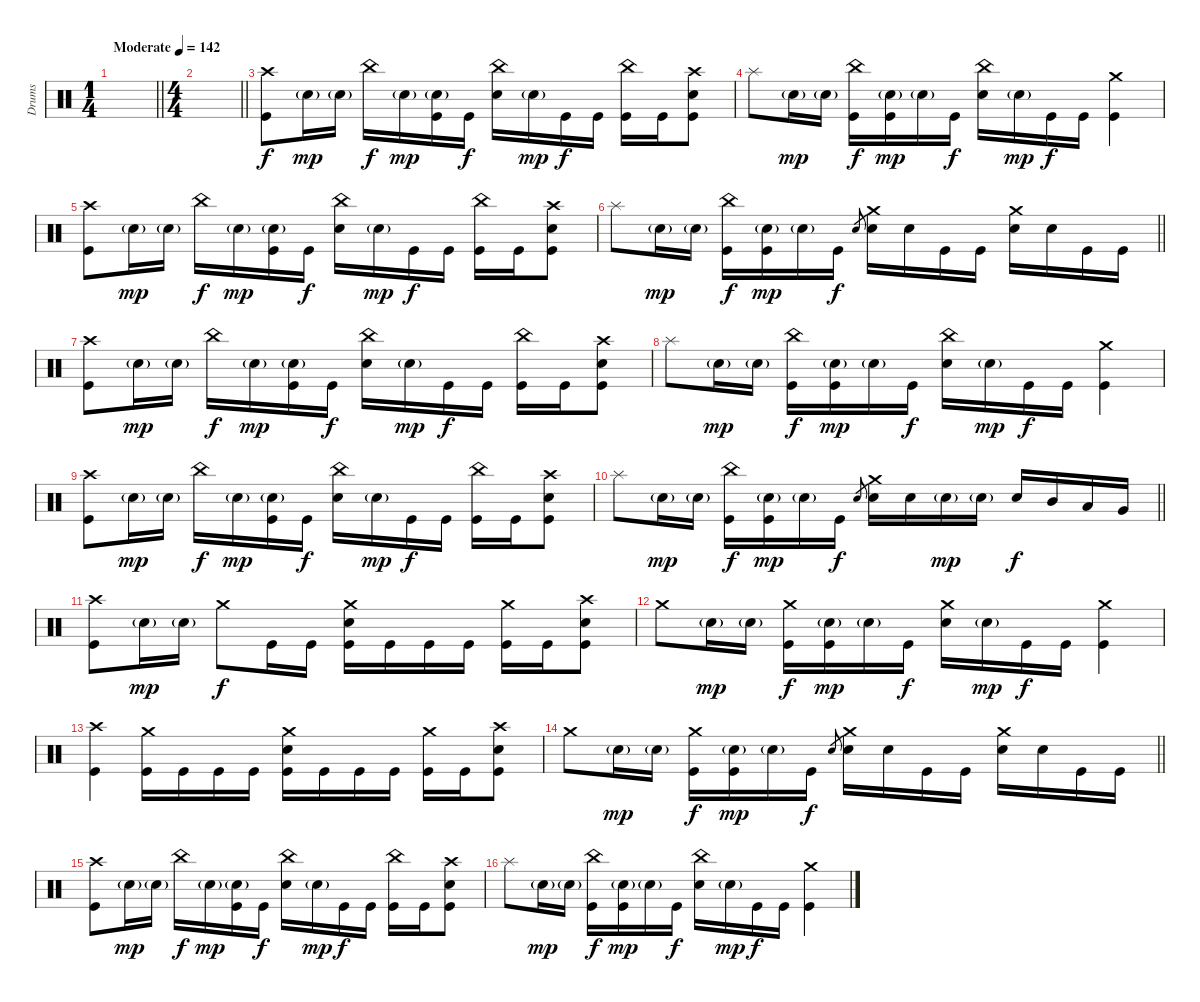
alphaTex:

\track ("Drums" "Drums") {instrument percussion}
\staff
\articulation defaults
\ts (1 4)
\tempo (142 "Moderate")
\clef neutral
\barLineRight lightlight
\ks c
|
\ts (4 4)
\barLineRight lightlight
|
("Crash high (hit)" "Kick (hit)").8 "Electric Snare (hit)"{g}.16{dy mp} "Electric Snare (hit)"{g}.16 "China (hit)".16{dy f} "Electric Snare (hit)"{g}.16{dy mp} ("Electric Snare (hit)"{g} "Kick (hit)").16 "Kick (hit)".16{dy f} ("China (hit)" "Electric Snare (hit)").16 "Electric Snare (hit)"{g}.16{dy mp} "Kick (hit)".16{dy f} "Kick (hit)".16 ("China (hit)" "Kick (hit)").16 "Kick (hit)".16 ("Crash high (hit)" "Electric Snare (hit)" "Kick (hit)").8 |
"Splash (hit)".8 "Electric Snare (hit)"{g}.16{dy mp} "Electric Snare (hit)"{g}.16 ("China (hit)" "Kick (hit)").16{dy f} ("Electric Snare (hit)"{g} "Kick (hit)").16{dy mp} "Electric Snare (hit)"{g}.16 "Kick (hit)".16{dy f} ("China (hit)" "Electric Snare (hit)").16 "Electric Snare (hit)"{g}.16{dy mp} "Kick (hit)".16{dy f} "Kick (hit)".16 ("Crash medium (hit)" "Kick (hit)").4 |
("Crash high (hit)" "Kick (hit)").8 "Electric Snare (hit)"{g}.16{dy mp} "Electric Snare (hit)"{g}.16 "China (hit)".16{dy f} "Electric Snare (hit)"{g}.16{dy mp} ("Electric Snare (hit)"{g} "Kick (hit)").16 "Kick (hit)".16{dy f} ("China (hit)" "Electric Snare (hit)").16 "Electric Snare (hit)"{g}.16{dy mp} "Kick (hit)".16{dy f} "Kick (hit)".16 ("China (hit)" "Kick (hit)").16 "Kick (hit)".16 ("Crash high (hit)" "Electric Snare (hit)" "Kick (hit)").8 |
\barLineRight lightlight "Splash (hit)".8 "Electric Snare (hit)"{g}.16{dy mp} "Electric Snare (hit)"{g}.16
("China (hit)" "Kick (hit)").16{dy f} ("Electric Snare (hit)"{g} "Kick (hit)").16{dy mp} "Electric Snare (hit)"{g}.16 "Kick (hit)".16{dy f} "Electric Snare (hit)".8{gr} ("Crash medium (hit)" "Electric Snare (hit)").16 "Electric Snare (hit)".16 "Kick (hit)".16 "Kick (hit)".16 ("Crash medium (hit)" "Electric Snare (hit)").16 "Electric Snare (hit)".16 "Kick (hit)".16 "Kick (hit)".16 |
("Crash high (hit)" "Kick (hit)").8 "Electric Snare (hit)"{g}.16{dy mp} "Electric Snare (hit)"{g}.16 "China (hit)".16{dy f} "Electric Snare (hit)"{g}.16{dy mp} ("Electric Snare (hit)"{g} "Kick (hit)").16 "Kick (hit)".16{dy f} ("China (hit)" "Electric Snare (hit)").16 "Electric Snare (hit)"{g}.16{dy mp} "Kick (hit)".16{dy f} "Kick (hit)".16 ("China (hit)" "Kick (hit)").16 "Kick (hit)".16 ("Crash high (hit)" "Electric Snare (hit)" "Kick (hit)").8 |
"Splash (hit)".8 "Electric Snare (hit)"{g}.16{dy mp} "Electric Snare (hit)"{g}.16 ("China (hit)" "Kick (hit)").16{dy f} ("Electric Snare (hit)"{g} "Kick (hit)").16{dy mp} "Electric Snare (hit)"{g}.16 "Kick (hit)".16{dy f} ("China (hit)" "Electric Snare (hit)").16 "Electric Snare (hit)"{g}.16{dy mp} "Kick (hit)".16{dy f} "Kick (hit)".16 ("Crash medium (hit)" "Kick (hit)").4 |
("Crash high (hit)" "Kick (hit)").8 "Electric Snare (hit)"{g}.16{dy mp} "Electric Snare (hit)"{g}.16 "China (hit)".16{dy f} "Electric Snare (hit)"{g}.16{dy mp} ("Electric Snare (hit)"{g} "Kick (hit)").16 "Kick (hit)".16{dy f} ("China (hit)" "Electric Snare (hit)").16 "Electric Snare (hit)"{g}.16{dy mp} "Kick (hit)".16{dy f} "Kick (hit)".16 ("China (hit)" "Kick (hit)").16 "Kick (hit)".16 ("Crash high (hit)" "Electric Snare (hit)" "Kick (hit)").8 |
\barLineRight lightlight "Splash (hit)".8 "Electric Snare (hit)"{g}.16{dy mp} "Electric Snare (hit)"{g}.16
("China (hit)" "Kick (hit)").16{dy f} ("Electric Snare (hit)"{g} "Kick (hit)").16{dy mp} "Electric Snare (hit)"{g}.16 "Kick (hit)".16{dy f} "Electric Snare (hit)".8{gr} ("Crash medium (hit)" "Electric Snare (hit)").16 "Electric Snare (hit)".16 "Electric Snare (hit)"{g}.16{dy mp} "Electric Snare (hit)"{g}.16 "Electric Snare (hit)".16{dy f} "Mid Tom (hit)".16 "Low Tom (hit)".16 "Very Low Tom (hit)".16 |
("Crash high (hit)" "Kick (hit)").8 "Electric Snare (hit)"{g}.16{dy mp} "Electric Snare (hit)"{g}.16 "Crash medium (hit)".8{dy f} "Kick (hit)".16 "Kick (hit)".16 ("Crash medium (hit)" "Electric Snare (hit)" "Kick (hit)").16 "Kick (hit)".16 "Kick (hit)".16 "Kick (hit)".16 ("Crash medium (hit)" "Kick (hit)").16 "Kick (hit)".16 ("Crash high (hit)" "Electric Snare (hit)" "Kick (hit)").8 |
"Crash medium (hit)".8 "Electric Snare (hit)"{g}.16{dy mp} "Electric Snare (hit)"{g}.16 ("Crash medium (hit)" "Kick (hit)").16{dy f} ("Electric Snare (hit)"{g} "Kick (hit)").16{dy mp} "Electric Snare (hit)"{g}.16 "Kick (hit)".16{dy f} ("Crash medium (hit)" "Electric Snare (hit)").16 "Electric Snare (hit)"{g}.16{dy mp} "Kick (hit)".16{dy f} "Kick (hit)".16 ("Crash medium (hit)" "Kick (hit)").4 |
("Crash high (hit)" "Kick (hit)").4 ("Crash medium (hit)" "Kick (hit)").16 "Kick (hit)".16 "Kick (hit)".16 "Kick (hit)".16 ("Crash medium (hit)" "Electric Snare (hit)" "Kick (hit)").16 "Kick (hit)".16 "Kick (hit)".16 "Kick (hit)".16 ("Crash medium (hit)" "Kick (hit)").16 "Kick (hit)".16 ("Crash high (hit)" "Electric Snare (hit)" "Kick (hit)").8 |
\barLineRight lightlight "Crash medium (hit)".8 "Electric Snare (hit)"{g}.16{dy mp} "Electric Snare (hit)"{g}.16
("Crash medium (hit)" "Kick (hit)").16{dy f} ("Electric Snare (hit)"{g} "Kick (hit)").16{dy mp} "Electric Snare (hit)"{g}.16 "Kick (hit)".16{dy f} "Electric Snare (hit)".8{gr} ("Crash medium (hit)" "Electric Snare (hit)").16 "Electric Snare (hit)".16 "Kick (hit)".16 "Kick (hit)".16 ("Crash medium (hit)" "Electric Snare (hit)").16 "Electric Snare (hit)".16 "Kick (hit)".16 "Kick (hit)".16 |
("Crash high (hit)" "Kick (hit)").8 "Electric Snare (hit)"{g}.16{dy mp} "Electric Snare (hit)"{g}.16 "China (hit)".16{dy f} "Electric Snare (hit)"{g}.16{dy mp} ("Electric Snare (hit)"{g} "Kick (hit)").16 "Kick (hit)".16{dy f} ("China (hit)" "Electric Snare (hit)").16 "Electric Snare (hit)"{g}.16{dy mp} "Kick (hit)".16{dy f} "Kick (hit)".16 ("China (hit)" "Kick (hit)").16 "Kick (hit)".16 ("Crash high (hit)" "Electric Snare (hit)" "Kick (hit)").8 |
"Splash (hit)".8 "Electric Snare (hit)"{g}.16{dy mp} "Electric Snare (hit)"{g}.16 ("China (hit)" "Kick (hit)").16{dy f} ("Electric Snare (hit)"{g} "Kick (hit)").16{dy mp} "Electric Snare (hit)"{g}.16 "Kick (hit)".16{dy f} ("China (hit)" "Electric Snare (hit)").16 "Electric Snare (hit)"{g}.16{dy mp} "Kick (hit)".16{dy f} "Kick (hit)".16 ("Crash medium (hit)" "Kick (hit)").4
